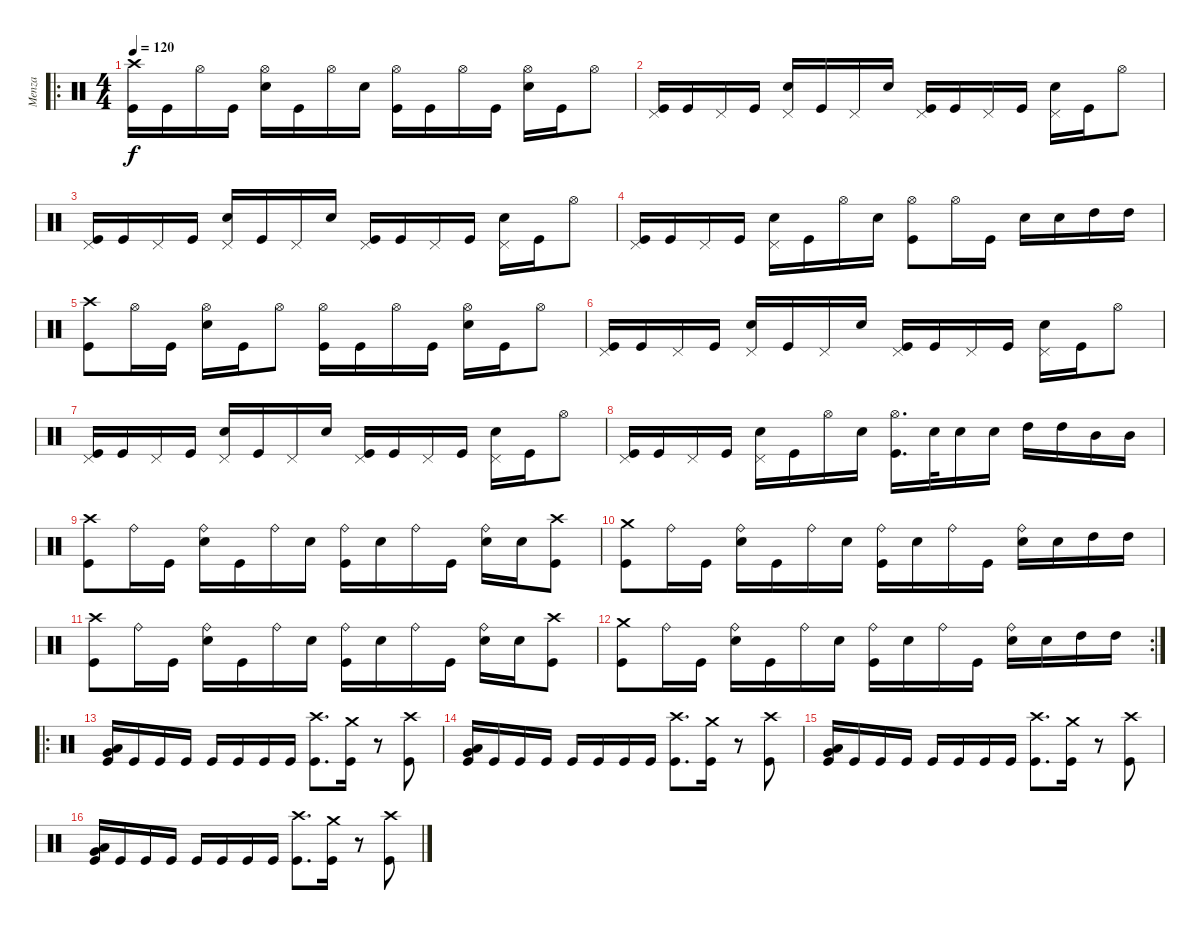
\track ("Menza" "Menza") {instrument percussion}
\staff {score}
\articulation defaults
\ro
\ts (4 4)
\tempo 120
\clef neutral
\ks c
("Crash high (hit)" "Kick (hit)").16{dy f} "Kick (hit)".16 "Hi-Hat (open)".16 "Kick (hit)".16 ("Hi-Hat (open)" "Snare (hit) 2").16 "Kick (hit)".16 "Hi-Hat (open)".16 "Snare (hit) 2".16 ("Hi-Hat (open)" "Kick (hit)").16 "Kick (hit)".16 "Hi-Hat (open)".16 "Kick (hit)".16 ("Hi-Hat (open)" "Snare (hit) 2").16 "Kick (hit)".16 "Hi-Hat (open)".8 |
("Pedal Hi-Hat (hit)" "Kick (hit)").16 "Kick (hit)".16 "Pedal Hi-Hat (hit)".16 "Kick (hit)".16 ("Pedal Hi-Hat (hit)" "Snare (hit) 2").16 "Kick (hit)".16 "Pedal Hi-Hat (hit)".16 "Snare (hit) 2".16 ("Pedal Hi-Hat (hit)" "Kick (hit)").16 "Kick (hit)".16 "Pedal Hi-Hat (hit)".16 "Kick (hit)".16 ("Pedal Hi-Hat (hit)" "Snare (hit) 2").16 "Kick (hit)".16 "Hi-Hat (open)".8 |
("Pedal Hi-Hat (hit)" "Kick (hit)").16 "Kick (hit)".16 "Pedal Hi-Hat (hit)".16 "Kick (hit)".16 ("Pedal Hi-Hat (hit)" "Snare (hit) 2").16 "Kick (hit)".16 "Pedal Hi-Hat (hit)".16 "Snare (hit) 2".16 ("Pedal Hi-Hat (hit)" "Kick (hit)").16 "Kick (hit)".16 "Pedal Hi-Hat (hit)".16 "Kick (hit)".16 ("Pedal Hi-Hat (hit)" "Snare (hit) 2").16 "Kick (hit)".16 "Hi-Hat (open)".8 |
("Pedal Hi-Hat (hit)" "Kick (hit)").16 "Kick (hit)".16 "Pedal Hi-Hat (hit)".16 "Kick (hit)".16 ("Pedal Hi-Hat (hit)" "Snare (hit) 2").16 "Kick (hit)".16 "Hi-Hat (open)".16 "Snare (hit) 2".16 ("Hi-Hat (open)" "Kick (hit)").8 "Hi-Hat (open)".16 "Kick (hit)".16 "Snare (hit) 2".16 "Snare (hit) 2".16 "High Tom (hit)".16 "High Tom (hit)".16 |
("Crash high (hit)" "Kick (hit)").8 "Hi-Hat (open)".16 "Kick (hit)".16 ("Hi-Hat (open)" "Snare (hit) 2").16 "Kick (hit)".16 "Hi-Hat (open)".8 ("Hi-Hat (open)" "Kick (hit)").16 "Kick (hit)".16 "Hi-Hat (open)".16 "Kick (hit)".16 ("Hi-Hat (open)" "Snare (hit) 2").16 "Kick (hit)".16 "Hi-Hat (open)".8 |
("Pedal Hi-Hat (hit)" "Kick (hit)").16 "Kick (hit)".16 "Pedal Hi-Hat (hit)".16 "Kick (hit)".16 ("Pedal Hi-Hat (hit)" "Snare (hit) 2").16 "Kick (hit)".16 "Pedal Hi-Hat (hit)".16 "Snare (hit) 2".16 ("Pedal Hi-Hat (hit)" "Kick (hit)").16 "Kick (hit)".16 "Pedal Hi-Hat (hit)".16 "Kick (hit)".16 ("Pedal Hi-Hat (hit)" "Snare (hit) 2").16 "Kick (hit)".16 "Hi-Hat (open)".8 |
("Pedal Hi-Hat (hit)" "Kick (hit)").16 "Kick (hit)".16 "Pedal Hi-Hat (hit)".16 "Kick (hit)".16 ("Pedal Hi-Hat (hit)" "Snare (hit) 2").16 "Kick (hit)".16 "Pedal Hi-Hat (hit)".16 "Snare (hit) 2".16 ("Pedal Hi-Hat (hit)" "Kick (hit)").16 "Kick (hit)".16 "Pedal Hi-Hat (hit)".16 "Kick (hit)".16 ("Pedal Hi-Hat (hit)" "Snare (hit) 2").16 "Kick (hit)".16 "Hi-Hat (open)".8 |
("Pedal Hi-Hat (hit)" "Kick (hit)").16 "Kick (hit)".16 "Pedal Hi-Hat (hit)".16 "Kick (hit)".16 ("Pedal Hi-Hat (hit)" "Snare (hit) 2").16 "Kick (hit)".16 "Hi-Hat (open)".16 "Snare (hit) 2".16 ("Hi-Hat (open)" "Kick (hit)").16{d} "Snare (hit) 2".32 "Snare (hit) 2".16 "Snare (hit) 2".16 "High Tom (hit)".16 "High Tom (hit)".16 "Mid Tom (hit)".16 "Mid Tom (hit)".16 |
("Crash high (hit)" "Kick (hit)").8 "Ride (bell)".16 "Kick (hit)".16 ("Ride (bell)" "Snare (hit) 2").16 "Kick (hit)".16 "Ride (bell)".16 "Snare (hit) 2".16 ("Ride (bell)" "Kick (hit)").16 "Snare (hit) 2".16 "Ride (bell)".16 "Kick (hit)".16 ("Ride (bell)" "Snare (hit) 2").16 "Snare (hit) 2".16 ("Crash high (hit)" "Kick (hit)").8 |
("Crash medium (hit)" "Kick (hit)").8 "Ride (bell)".16 "Kick (hit)".16 ("Ride (bell)" "Snare (hit) 2").16 "Kick (hit)".16 "Ride (bell)".16 "Snare (hit) 2".16 ("Ride (bell)" "Kick (hit)").16 "Snare (hit) 2".16 "Ride (bell)".16 "Kick (hit)".16 ("Ride (bell)" "Snare (hit) 2").16 "Snare (hit) 2".16 "High Tom (hit)".16 "High Tom (hit)".16 |
("Crash high (hit)" "Kick (hit)").8 "Ride (bell)".16 "Kick (hit)".16 ("Ride (bell)" "Snare (hit) 2").16 "Kick (hit)".16 "Ride (bell)".16 "Snare (hit) 2".16 ("Ride (bell)" "Kick (hit)").16 "Snare (hit) 2".16 "Ride (bell)".16 "Kick (hit)".16 ("Ride (bell)" "Snare (hit) 2").16 "Snare (hit) 2".16 ("Crash high (hit)" "Kick (hit)").8 |
\rc 2
("Crash medium (hit)" "Kick (hit)").8 "Ride (bell)".16 "Kick (hit)".16 ("Ride (bell)" "Snare (hit) 2").16 "Kick (hit)".16 "Ride (bell)".16 "Snare (hit) 2".16 ("Ride (bell)" "Kick (hit)").16 "Snare (hit) 2".16 "Ride (bell)".16 "Kick (hit)".16 ("Ride (bell)" "Snare (hit) 2").16 "Snare (hit) 2".16 "High Tom (hit)".16 "High Tom (hit)".16 |
\ro
("Very Low Tom (hit)" "Low Floor Tom (hit)" "Kick (hit)").16 "Kick (hit)".16 "Kick (hit)".16 "Kick (hit)".16 "Kick (hit)".16 "Kick (hit)".16 "Kick (hit)".16 "Kick (hit)".16 ("Crash high (hit)" "Kick (hit)").8{d} ("Crash medium (hit)" "Kick (hit)").16 r.8 ("Crash high (hit)" "Kick (hit)").8 |
("Very Low Tom (hit)" "Low Floor Tom (hit)" "Kick (hit)").16 "Kick (hit)".16 "Kick (hit)".16 "Kick (hit)".16 "Kick (hit)".16 "Kick (hit)".16 "Kick (hit)".16 "Kick (hit)".16 ("Crash high (hit)" "Kick (hit)").8{d} ("Crash medium (hit)" "Kick (hit)").16 r.8 ("Crash high (hit)" "Kick (hit)").8 |
("Very Low Tom (hit)" "Low Floor Tom (hit)" "Kick (hit)").16 "Kick (hit)".16 "Kick (hit)".16 "Kick (hit)".16 "Kick (hit)".16 "Kick (hit)".16 "Kick (hit)".16 "Kick (hit)".16 ("Crash high (hit)" "Kick (hit)").8{d} ("Crash medium (hit)" "Kick (hit)").16 r.8 ("Crash high (hit)" "Kick (hit)").8 |
("Very Low Tom (hit)" "Low Floor Tom (hit)" "Kick (hit)").16 "Kick (hit)".16 "Kick (hit)".16 "Kick (hit)".16 "Kick (hit)".16 "Kick (hit)".16 "Kick (hit)".16 "Kick (hit)".16 ("Crash high (hit)" "Kick (hit)").8{d} ("Crash medium (hit)" "Kick (hit)").16 r.8 ("Crash high (hit)" "Kick (hit)").8
